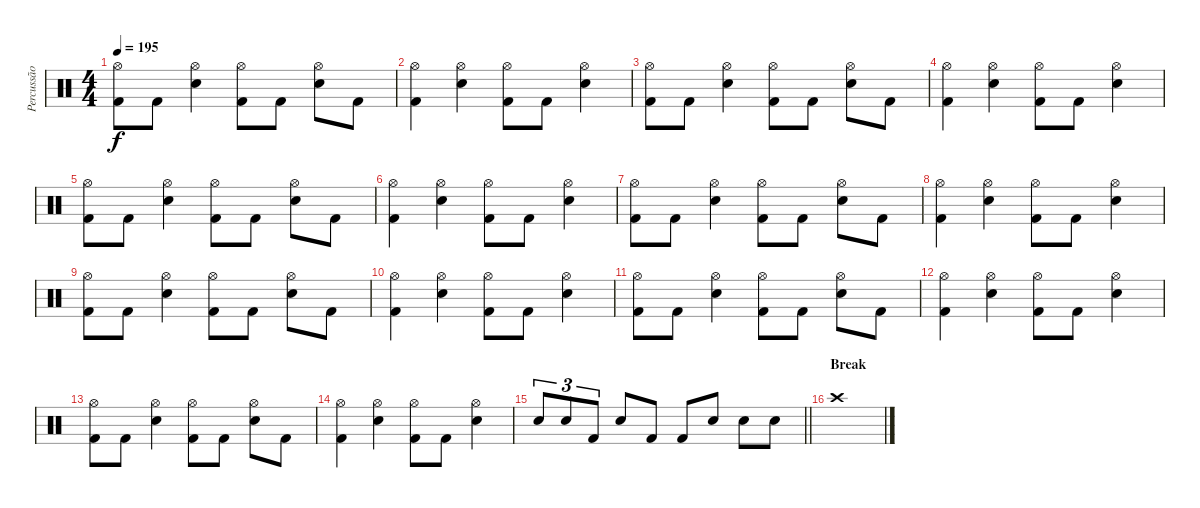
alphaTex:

\track ("Percussão" "Percussão") {instrument percussion}
\staff {score}
\articulation defaults
\ts (4 4)
\tempo 195
\clef neutral
\ks c
("Hi-Hat (open)" "Kick (hit) 2").8{dy f} "Kick (hit) 2".8 ("Hi-Hat (open)" "Snare (hit) 2").4 ("Hi-Hat (open)" "Kick (hit) 2").8 "Kick (hit) 2".8 ("Hi-Hat (open)" "Snare (hit) 2").8 "Kick (hit) 2".8 |
("Hi-Hat (open)" "Kick (hit) 2").4 ("Hi-Hat (open)" "Snare (hit) 2").4 ("Hi-Hat (open)" "Kick (hit) 2").8 "Kick (hit) 2".8 ("Hi-Hat (open)" "Snare (hit) 2").4 |
("Hi-Hat (open)" "Kick (hit) 2").8 "Kick (hit) 2".8 ("Hi-Hat (open)" "Snare (hit) 2").4 ("Hi-Hat (open)" "Kick (hit) 2").8 "Kick (hit) 2".8 ("Hi-Hat (open)" "Snare (hit) 2").8 "Kick (hit) 2".8 |
("Hi-Hat (open)" "Kick (hit) 2").4 ("Hi-Hat (open)" "Snare (hit) 2").4 ("Hi-Hat (open)" "Kick (hit) 2").8 "Kick (hit) 2".8 ("Hi-Hat (open)" "Snare (hit) 2").4 |
("Hi-Hat (open)" "Kick (hit) 2").8 "Kick (hit) 2".8 ("Hi-Hat (open)" "Snare (hit) 2").4 ("Hi-Hat (open)" "Kick (hit) 2").8 "Kick (hit) 2".8 ("Hi-Hat (open)" "Snare (hit) 2").8 "Kick (hit) 2".8 |
("Hi-Hat (open)" "Kick (hit) 2").4 ("Hi-Hat (open)" "Snare (hit) 2").4 ("Hi-Hat (open)" "Kick (hit) 2").8 "Kick (hit) 2".8 ("Hi-Hat (open)" "Snare (hit) 2").4 |
("Hi-Hat (open)" "Kick (hit) 2").8 "Kick (hit) 2".8 ("Hi-Hat (open)" "Snare (hit) 2").4 ("Hi-Hat (open)" "Kick (hit) 2").8 "Kick (hit) 2".8 ("Hi-Hat (open)" "Snare (hit) 2").8 "Kick (hit) 2".8 |
("Hi-Hat (open)" "Kick (hit) 2").4 ("Hi-Hat (open)" "Snare (hit) 2").4 ("Hi-Hat (open)" "Kick (hit) 2").8 "Kick (hit) 2".8 ("Hi-Hat (open)" "Snare (hit) 2").4 |
("Hi-Hat (open)" "Kick (hit) 2").8 "Kick (hit) 2".8 ("Hi-Hat (open)" "Snare (hit) 2").4 ("Hi-Hat (open)" "Kick (hit) 2").8 "Kick (hit) 2".8 ("Hi-Hat (open)" "Snare (hit) 2").8 "Kick (hit) 2".8 |
("Hi-Hat (open)" "Kick (hit) 2").4 ("Hi-Hat (open)" "Snare (hit) 2").4 ("Hi-Hat (open)" "Kick (hit) 2").8 "Kick (hit) 2".8 ("Hi-Hat (open)" "Snare (hit) 2").4 |
("Hi-Hat (open)" "Kick (hit) 2").8 "Kick (hit) 2".8 ("Hi-Hat (open)" "Snare (hit) 2").4 ("Hi-Hat (open)" "Kick (hit) 2").8 "Kick (hit) 2".8 ("Hi-Hat (open)" "Snare (hit) 2").8 "Kick (hit) 2".8 |
("Hi-Hat (open)" "Kick (hit) 2").4 ("Hi-Hat (open)" "Snare (hit) 2").4 ("Hi-Hat (open)" "Kick (hit) 2").8 "Kick (hit) 2".8 ("Hi-Hat (open)" "Snare (hit) 2").4 |
("Hi-Hat (open)" "Kick (hit) 2").8 "Kick (hit) 2".8 ("Hi-Hat (open)" "Snare (hit) 2").4 ("Hi-Hat (open)" "Kick (hit) 2").8 "Kick (hit) 2".8 ("Hi-Hat (open)" "Snare (hit) 2").8 "Kick (hit) 2".8 |
("Hi-Hat (open)" "Kick (hit) 2").4 ("Hi-Hat (open)" "Snare (hit) 2").4 ("Hi-Hat (open)" "Kick (hit) 2").8 "Kick (hit) 2".8 ("Hi-Hat (open)" "Snare (hit) 2").4 |
\barLineRight lightlight "Snare (hit) 2".8{tu (3 2)} "Snare (hit) 2".8{tu (3 2)} "Kick (hit) 2".8{tu (3 2)} "Snare (hit) 2".8 "Kick (hit) 2".8 "Kick (hit) 2".8 "Snare (hit) 2".8 "Snare (hit) 2".8 "Snare (hit) 2".8
|
\section ("" "Break")
"Crash high (hit)".1
